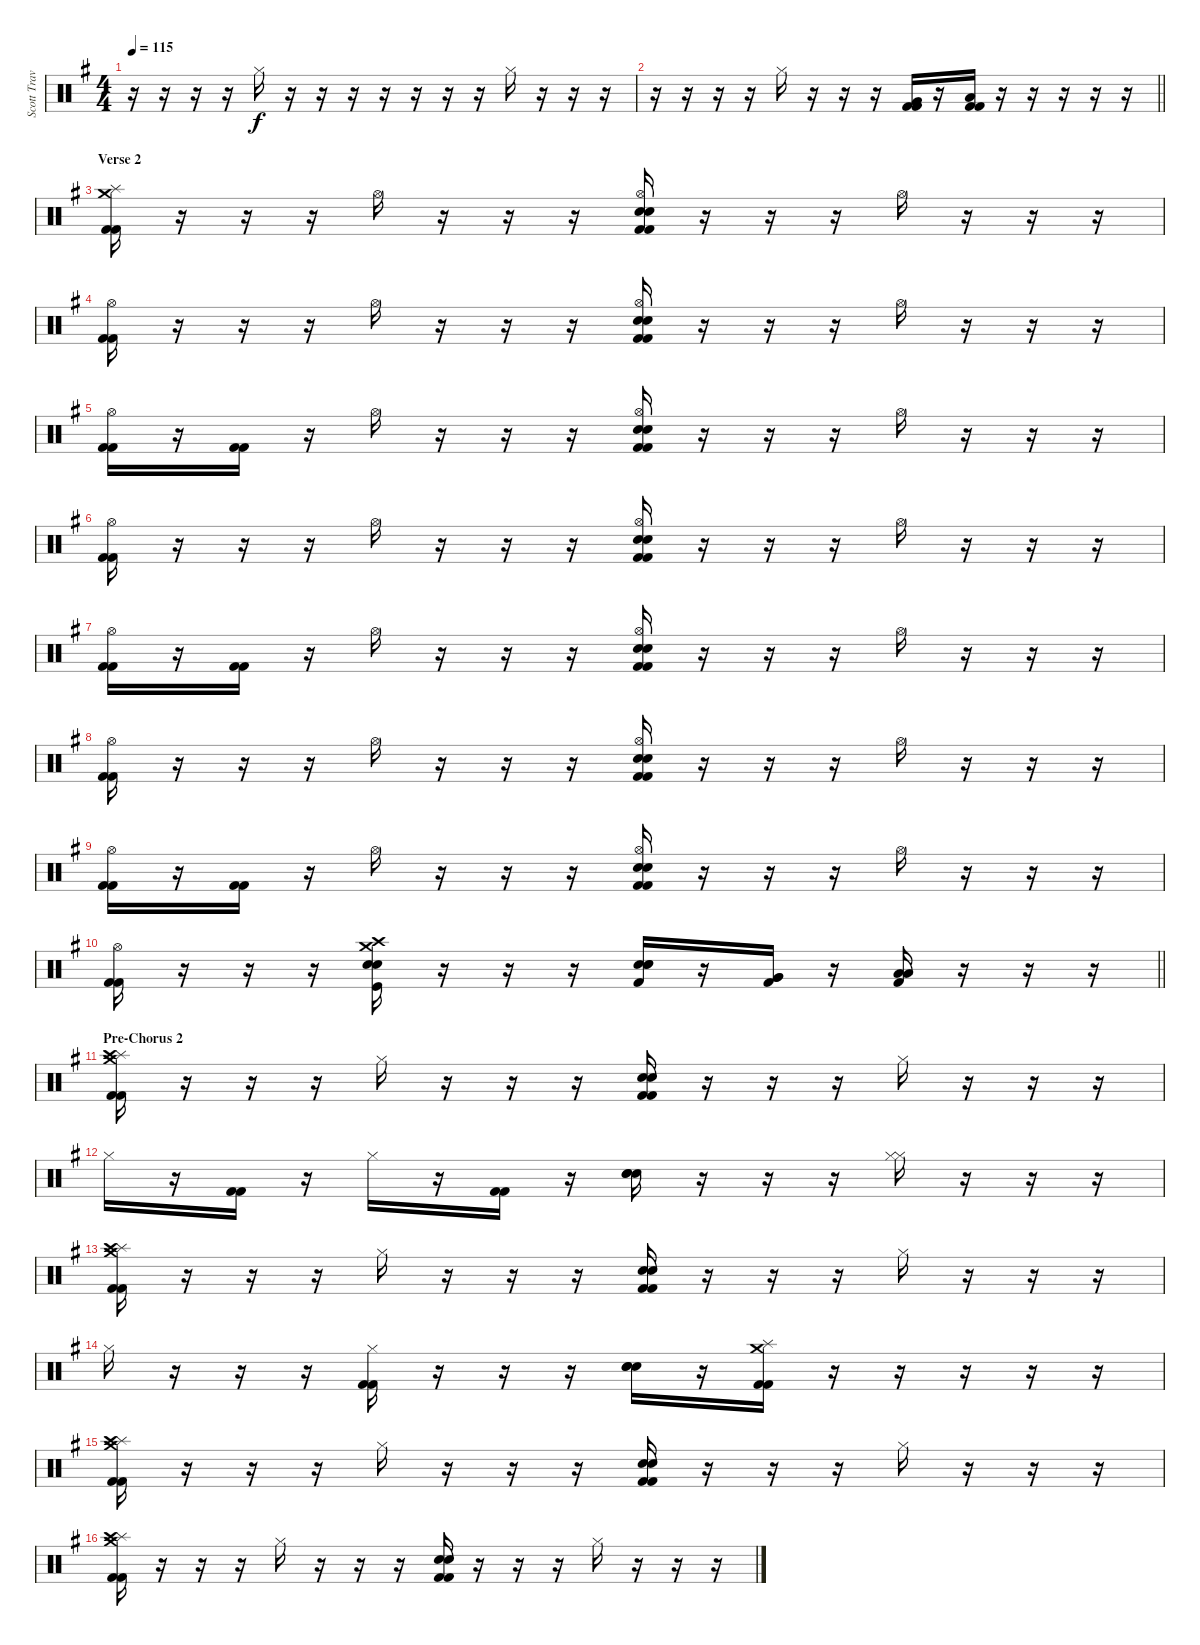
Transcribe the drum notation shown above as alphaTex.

\track ("Scott Travis" "Scott Trav") {instrument percussion}
\staff {score}
\articulation defaults
\ts (4 4)
\tempo 115
\clef neutral
\ks eminor
r.16{dy f} r.16 r.16 r.16 "Hi-Hat (closed)".16 r.16 r.16 r.16 r.16 r.16 r.16 r.16 "Hi-Hat (closed)".16 r.16 r.16 r.16 |
\barLineRight lightlight
r.16 r.16 r.16 r.16 "Hi-Hat (closed)".16 r.16 r.16 r.16 ("Very Low Tom (hit)" "Kick (hit) 2" "Kick (hit) 2").16 r.16 ("Low Floor Tom (hit)" "Kick (hit) 2" "Kick (hit) 2").16 r.16 r.16 r.16 r.16 r.16 |
\section ("" "Verse 2")
("Crash medium (hit)" "Splash (hit)" "Kick (hit) 2" "Kick (hit) 2").16 r.16 r.16 r.16 "Hi-Hat (open)".16 r.16 r.16 r.16 ("Hi-Hat (open)" "Snare (hit) 2" "Snare (hit) 2" "Kick (hit) 2" "Kick (hit) 2").16 r.16 r.16 r.16 "Hi-Hat (open)".16 r.16 r.16 r.16 |
("Hi-Hat (open)" "Kick (hit) 2" "Kick (hit) 2").16 r.16 r.16 r.16 "Hi-Hat (open)".16 r.16 r.16 r.16 ("Hi-Hat (open)" "Snare (hit) 2" "Snare (hit) 2" "Kick (hit) 2" "Kick (hit) 2").16 r.16 r.16 r.16 "Hi-Hat (open)".16 r.16 r.16 r.16 |
("Hi-Hat (open)" "Kick (hit) 2" "Kick (hit) 2").16 r.16 ("Kick (hit) 2" "Kick (hit) 2").16 r.16 "Hi-Hat (open)".16 r.16 r.16 r.16 ("Hi-Hat (open)" "Snare (hit) 2" "Snare (hit) 2" "Kick (hit) 2" "Kick (hit) 2").16 r.16 r.16 r.16 "Hi-Hat (open)".16 r.16 r.16 r.16 |
("Hi-Hat (open)" "Kick (hit) 2" "Kick (hit) 2").16 r.16 r.16 r.16 "Hi-Hat (open)".16 r.16 r.16 r.16 ("Hi-Hat (open)" "Snare (hit) 2" "Snare (hit) 2" "Kick (hit) 2" "Kick (hit) 2").16 r.16 r.16 r.16 "Hi-Hat (open)".16 r.16 r.16 r.16 |
("Hi-Hat (open)" "Kick (hit) 2" "Kick (hit) 2").16 r.16 ("Kick (hit) 2" "Kick (hit) 2").16 r.16 "Hi-Hat (open)".16 r.16 r.16 r.16 ("Hi-Hat (open)" "Snare (hit) 2" "Snare (hit) 2" "Kick (hit) 2" "Kick (hit) 2").16 r.16 r.16 r.16 "Hi-Hat (open)".16 r.16 r.16 r.16 |
("Hi-Hat (open)" "Kick (hit) 2" "Kick (hit) 2").16 r.16 r.16 r.16 "Hi-Hat (open)".16 r.16 r.16 r.16 ("Hi-Hat (open)" "Snare (hit) 2" "Snare (hit) 2" "Kick (hit) 2" "Kick (hit) 2").16 r.16 r.16 r.16 "Hi-Hat (open)".16 r.16 r.16 r.16 |
("Hi-Hat (open)" "Kick (hit) 2" "Kick (hit) 2").16 r.16 ("Kick (hit) 2" "Kick (hit) 2").16 r.16 "Hi-Hat (open)".16 r.16 r.16 r.16 ("Hi-Hat (open)" "Snare (hit) 2" "Snare (hit) 2" "Kick (hit) 2" "Kick (hit) 2").16 r.16 r.16 r.16 "Hi-Hat (open)".16 r.16 r.16 r.16 |
\barLineRight lightlight
("Hi-Hat (open)" "Kick (hit) 2" "Kick (hit) 2").16 r.16 r.16 r.16 ("Crash medium (hit)" "Crash high (hit)" "Snare (hit) 2" "Snare (hit) 2" "Kick (hit)").16 r.16 r.16 r.16 ("Snare (hit) 2" "Snare (hit) 2" "Snare (hit) 2" "Kick (hit) 2").16 r.16 ("Very Low Tom (hit)" "Very Low Tom (hit)" "Kick (hit) 2").16 r.16 ("Low Floor Tom (hit)" "Low Floor Tom (hit)" "Kick (hit) 2").16 r.16 r.16 r.16 |
\section ("" "Pre-Chorus 2")
("Splash (hit)" "Crash high (hit)" "Crash medium (hit)" "Kick (hit) 2" "Kick (hit) 2").16 r.16 r.16 r.16 "Hi-Hat (closed)".16 r.16 r.16 r.16 ("Snare (hit) 2" "Snare (hit) 2" "Kick (hit) 2" "Kick (hit) 2").16 r.16 r.16 r.16 "Hi-Hat (closed)".16 r.16 r.16 r.16 |
"Hi-Hat (closed)".16 r.16 ("Kick (hit) 2" "Kick (hit) 2").16 r.16 "Hi-Hat (closed)".16 r.16 ("Kick (hit) 2" "Kick (hit) 2").16 r.16 ("Snare (hit) 2" "Snare (hit) 2" "Snare (hit) 2").16 r.16 r.16 r.16 ("Hi-Hat (closed)" "Hi-Hat (closed)").16 r.16 r.16 r.16 |
("Splash (hit)" "Crash high (hit)" "Crash medium (hit)" "Kick (hit) 2" "Kick (hit) 2").16 r.16 r.16 r.16 "Hi-Hat (closed)".16 r.16 r.16 r.16 ("Snare (hit) 2" "Snare (hit) 2" "Kick (hit) 2" "Kick (hit) 2").16 r.16 r.16 r.16 "Hi-Hat (closed)".16 r.16 r.16 r.16 |
"Hi-Hat (closed)".16 r.16 r.16 r.16 ("Hi-Hat (closed)" "Kick (hit) 2" "Kick (hit) 2").16 r.16 r.16 r.16 ("Snare (hit) 2" "Snare (hit) 2" "Snare (hit) 2").16 r.16 ("Crash medium (hit)" "Splash (hit)" "Kick (hit) 2" "Kick (hit) 2").16 r.16 r.16 r.16 r.16 r.16 |
("Splash (hit)" "Crash high (hit)" "Crash medium (hit)" "Kick (hit) 2" "Kick (hit) 2").16 r.16 r.16 r.16 "Hi-Hat (closed)".16 r.16 r.16 r.16 ("Snare (hit) 2" "Snare (hit) 2" "Kick (hit) 2" "Kick (hit) 2").16 r.16 r.16 r.16 "Hi-Hat (closed)".16 r.16 r.16 r.16 |
("Splash (hit)" "Crash high (hit)" "Crash medium (hit)" "Kick (hit) 2" "Kick (hit) 2").16 r.16 r.16 r.16 "Hi-Hat (closed)".16 r.16 r.16 r.16 ("Snare (hit) 2" "Snare (hit) 2" "Kick (hit) 2" "Kick (hit) 2").16 r.16 r.16 r.16 "Hi-Hat (closed)".16 r.16 r.16 r.16
